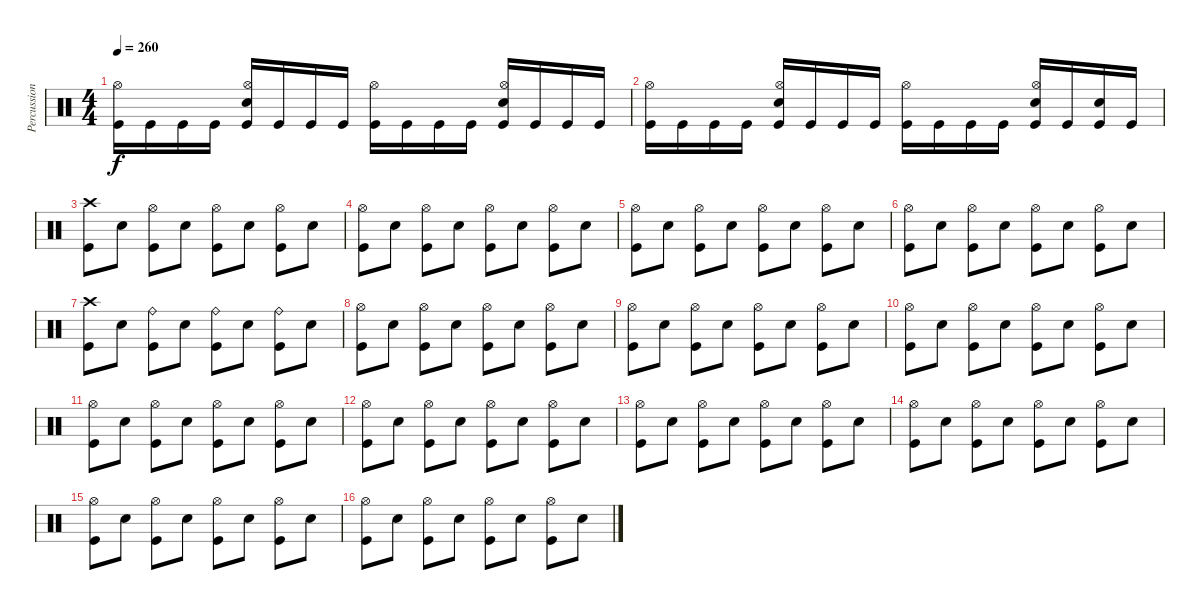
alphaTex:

\track ("Percussion" "Percussion") {instrument percussion}
\staff {score}
\articulation defaults
\ts (4 4)
\tempo 260
\clef neutral
\ks c
("Kick (hit)" "Hi-Hat (open)").16{dy f} "Kick (hit)".16 "Kick (hit)".16 "Kick (hit)".16 ("Kick (hit)" "Snare (hit) 2" "Hi-Hat (open)").16 "Kick (hit)".16 "Kick (hit)".16 "Kick (hit)".16 ("Kick (hit)" "Hi-Hat (open)").16 "Kick (hit)".16 "Kick (hit)".16 "Kick (hit)".16 ("Kick (hit)" "Snare (hit) 2" "Hi-Hat (open)").16 "Kick (hit)".16 "Kick (hit)".16 "Kick (hit)".16 |
("Kick (hit)" "Hi-Hat (open)").16 "Kick (hit)".16 "Kick (hit)".16 "Kick (hit)".16 ("Kick (hit)" "Snare (hit) 2" "Hi-Hat (open)").16 "Kick (hit)".16 "Kick (hit)".16 "Kick (hit)".16 ("Kick (hit)" "Hi-Hat (open)").16 "Kick (hit)".16 "Kick (hit)".16 "Kick (hit)".16 ("Kick (hit)" "Snare (hit) 2" "Hi-Hat (open)").16 "Kick (hit)".16 ("Kick (hit)" "Snare (hit) 2").16 "Kick (hit)".16 |
("Kick (hit)" "Crash high (hit)").8 "Snare (hit) 2".8 ("Kick (hit)" "Hi-Hat (open)").8 "Snare (hit) 2".8 ("Kick (hit)" "Hi-Hat (open)").8 "Snare (hit) 2".8 ("Kick (hit)" "Hi-Hat (open)").8 "Snare (hit) 2".8 |
("Kick (hit)" "Hi-Hat (open)").8 "Snare (hit) 2".8 ("Kick (hit)" "Hi-Hat (open)").8 "Snare (hit) 2".8 ("Kick (hit)" "Hi-Hat (open)").8 "Snare (hit) 2".8 ("Kick (hit)" "Hi-Hat (open)").8 "Snare (hit) 2".8 |
("Kick (hit)" "Hi-Hat (open)").8 "Snare (hit) 2".8 ("Kick (hit)" "Hi-Hat (open)").8 "Snare (hit) 2".8 ("Kick (hit)" "Hi-Hat (open)").8 "Snare (hit) 2".8 ("Kick (hit)" "Hi-Hat (open)").8 "Snare (hit) 2".8 |
("Kick (hit)" "Hi-Hat (open)").8 "Snare (hit) 2".8 ("Kick (hit)" "Hi-Hat (open)").8 "Snare (hit) 2".8 ("Kick (hit)" "Hi-Hat (open)").8 "Snare (hit) 2".8 ("Kick (hit)" "Hi-Hat (open)").8 "Snare (hit) 2".8 |
("Kick (hit)" "Crash high (hit)").8 "Snare (hit) 2".8 ("Kick (hit)" "Ride (bell)").8 "Snare (hit) 2".8 ("Kick (hit)" "Ride (bell)").8 "Snare (hit) 2".8 ("Kick (hit)" "Ride (bell)").8 "Snare (hit) 2".8 |
("Kick (hit)" "Hi-Hat (open)").8 "Snare (hit) 2".8 ("Kick (hit)" "Hi-Hat (open)").8 "Snare (hit) 2".8 ("Kick (hit)" "Hi-Hat (open)").8 "Snare (hit) 2".8 ("Kick (hit)" "Hi-Hat (open)").8 "Snare (hit) 2".8 |
("Kick (hit)" "Hi-Hat (open)").8 "Snare (hit) 2".8 ("Kick (hit)" "Hi-Hat (open)").8 "Snare (hit) 2".8 ("Kick (hit)" "Hi-Hat (open)").8 "Snare (hit) 2".8 ("Kick (hit)" "Hi-Hat (open)").8 "Snare (hit) 2".8 |
("Kick (hit)" "Hi-Hat (open)").8 "Snare (hit) 2".8 ("Kick (hit)" "Hi-Hat (open)").8 "Snare (hit) 2".8 ("Kick (hit)" "Hi-Hat (open)").8 "Snare (hit) 2".8 ("Kick (hit)" "Hi-Hat (open)").8 "Snare (hit) 2".8 |
("Kick (hit)" "Hi-Hat (open)").8 "Snare (hit) 2".8 ("Kick (hit)" "Hi-Hat (open)").8 "Snare (hit) 2".8 ("Kick (hit)" "Hi-Hat (open)").8 "Snare (hit) 2".8 ("Kick (hit)" "Hi-Hat (open)").8 "Snare (hit) 2".8 |
("Kick (hit)" "Hi-Hat (open)").8 "Snare (hit) 2".8 ("Kick (hit)" "Hi-Hat (open)").8 "Snare (hit) 2".8 ("Kick (hit)" "Hi-Hat (open)").8 "Snare (hit) 2".8 ("Kick (hit)" "Hi-Hat (open)").8 "Snare (hit) 2".8 |
("Kick (hit)" "Hi-Hat (open)").8 "Snare (hit) 2".8 ("Kick (hit)" "Hi-Hat (open)").8 "Snare (hit) 2".8 ("Kick (hit)" "Hi-Hat (open)").8 "Snare (hit) 2".8 ("Kick (hit)" "Hi-Hat (open)").8 "Snare (hit) 2".8 |
("Kick (hit)" "Hi-Hat (open)").8 "Snare (hit) 2".8 ("Kick (hit)" "Hi-Hat (open)").8 "Snare (hit) 2".8 ("Kick (hit)" "Hi-Hat (open)").8 "Snare (hit) 2".8 ("Kick (hit)" "Hi-Hat (open)").8 "Snare (hit) 2".8 |
("Kick (hit)" "Hi-Hat (open)").8 "Snare (hit) 2".8 ("Kick (hit)" "Hi-Hat (open)").8 "Snare (hit) 2".8 ("Kick (hit)" "Hi-Hat (open)").8 "Snare (hit) 2".8 ("Kick (hit)" "Hi-Hat (open)").8 "Snare (hit) 2".8 |
("Kick (hit)" "Hi-Hat (open)").8 "Snare (hit) 2".8 ("Kick (hit)" "Hi-Hat (open)").8 "Snare (hit) 2".8 ("Kick (hit)" "Hi-Hat (open)").8 "Snare (hit) 2".8 ("Kick (hit)" "Hi-Hat (open)").8 "Snare (hit) 2".8
